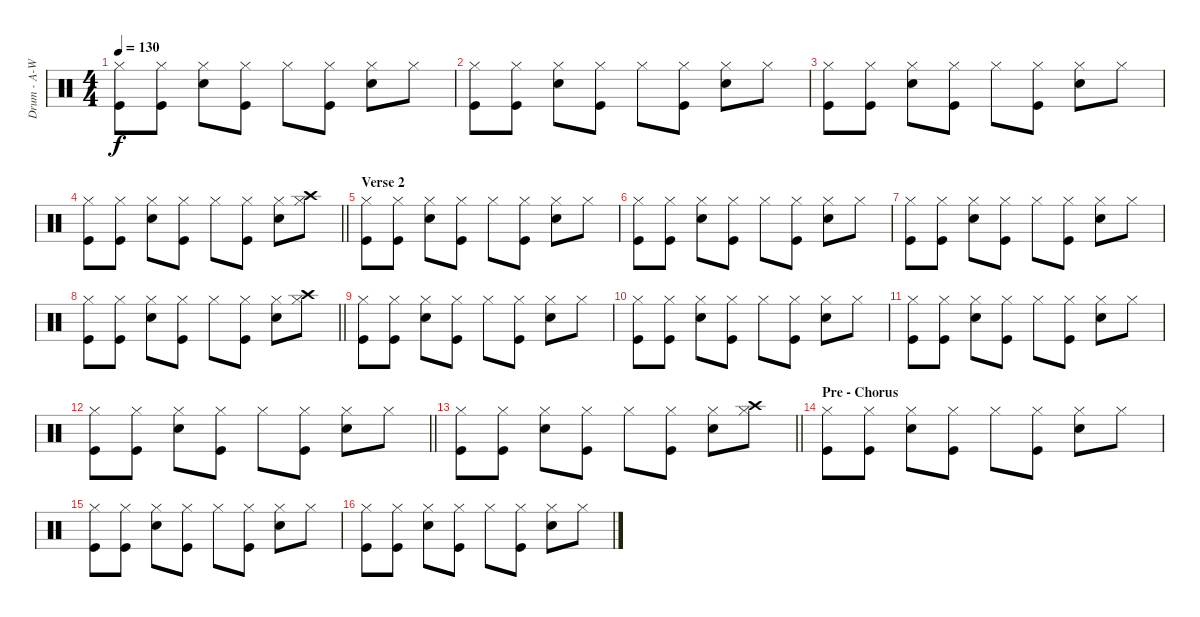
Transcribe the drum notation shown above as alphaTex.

\track ("Drum - A-Word" "Drum - A-W") {instrument percussion}
\staff {score}
\articulation defaults
\ts (4 4)
\tempo 130
\clef neutral
\ks c
("Hi-Hat (closed)" "Kick (hit)").8{dy f} ("Hi-Hat (closed)" "Kick (hit)").8 ("Hi-Hat (closed)" "Snare (hit) 2").8 ("Hi-Hat (closed)" "Kick (hit)").8 "Hi-Hat (closed)".8 ("Hi-Hat (closed)" "Kick (hit)").8 ("Hi-Hat (closed)" "Snare (hit) 2").8 "Hi-Hat (closed)".8 |
("Hi-Hat (closed)" "Kick (hit)").8 ("Hi-Hat (closed)" "Kick (hit)").8 ("Hi-Hat (closed)" "Snare (hit) 2").8 ("Hi-Hat (closed)" "Kick (hit)").8 "Hi-Hat (closed)".8 ("Hi-Hat (closed)" "Kick (hit)").8 ("Hi-Hat (closed)" "Snare (hit) 2").8 "Hi-Hat (closed)".8 |
("Hi-Hat (closed)" "Kick (hit)").8 ("Hi-Hat (closed)" "Kick (hit)").8 ("Hi-Hat (closed)" "Snare (hit) 2").8 ("Hi-Hat (closed)" "Kick (hit)").8 "Hi-Hat (closed)".8 ("Hi-Hat (closed)" "Kick (hit)").8 ("Hi-Hat (closed)" "Snare (hit) 2").8 "Hi-Hat (closed)".8 |
\barLineRight lightlight
("Hi-Hat (closed)" "Kick (hit)").8 ("Hi-Hat (closed)" "Kick (hit)").8 ("Hi-Hat (closed)" "Snare (hit) 2").8 ("Hi-Hat (closed)" "Kick (hit)").8 "Hi-Hat (closed)".8 ("Hi-Hat (closed)" "Kick (hit)").8 ("Hi-Hat (closed)" "Snare (hit) 2").8 ("Hi-Hat (closed)" "Crash high (hit)").8 |
\section ("" "Verse 2")
("Hi-Hat (closed)" "Kick (hit)").8 ("Hi-Hat (closed)" "Kick (hit)").8 ("Hi-Hat (closed)" "Snare (hit) 2").8 ("Hi-Hat (closed)" "Kick (hit)").8 "Hi-Hat (closed)".8 ("Hi-Hat (closed)" "Kick (hit)").8 ("Hi-Hat (closed)" "Snare (hit) 2").8 "Hi-Hat (closed)".8 |
("Hi-Hat (closed)" "Kick (hit)").8 ("Hi-Hat (closed)" "Kick (hit)").8 ("Hi-Hat (closed)" "Snare (hit) 2").8 ("Hi-Hat (closed)" "Kick (hit)").8 "Hi-Hat (closed)".8 ("Hi-Hat (closed)" "Kick (hit)").8 ("Hi-Hat (closed)" "Snare (hit) 2").8 "Hi-Hat (closed)".8 |
("Hi-Hat (closed)" "Kick (hit)").8 ("Hi-Hat (closed)" "Kick (hit)").8 ("Hi-Hat (closed)" "Snare (hit) 2").8 ("Hi-Hat (closed)" "Kick (hit)").8 "Hi-Hat (closed)".8 ("Hi-Hat (closed)" "Kick (hit)").8 ("Hi-Hat (closed)" "Snare (hit) 2").8 "Hi-Hat (closed)".8 |
\barLineRight lightlight
("Hi-Hat (closed)" "Kick (hit)").8 ("Hi-Hat (closed)" "Kick (hit)").8 ("Hi-Hat (closed)" "Snare (hit) 2").8 ("Hi-Hat (closed)" "Kick (hit)").8 "Hi-Hat (closed)".8 ("Hi-Hat (closed)" "Kick (hit)").8 ("Hi-Hat (closed)" "Snare (hit) 2").8 ("Hi-Hat (closed)" "Crash high (hit)").8 |
("Hi-Hat (closed)" "Kick (hit)").8 ("Hi-Hat (closed)" "Kick (hit)").8 ("Hi-Hat (closed)" "Snare (hit) 2").8 ("Hi-Hat (closed)" "Kick (hit)").8 "Hi-Hat (closed)".8 ("Hi-Hat (closed)" "Kick (hit)").8 ("Hi-Hat (closed)" "Snare (hit) 2").8 "Hi-Hat (closed)".8 |
("Hi-Hat (closed)" "Kick (hit)").8 ("Hi-Hat (closed)" "Kick (hit)").8 ("Hi-Hat (closed)" "Snare (hit) 2").8 ("Hi-Hat (closed)" "Kick (hit)").8 "Hi-Hat (closed)".8 ("Hi-Hat (closed)" "Kick (hit)").8 ("Hi-Hat (closed)" "Snare (hit) 2").8 "Hi-Hat (closed)".8 |
("Hi-Hat (closed)" "Kick (hit)").8 ("Hi-Hat (closed)" "Kick (hit)").8 ("Hi-Hat (closed)" "Snare (hit) 2").8 ("Hi-Hat (closed)" "Kick (hit)").8 "Hi-Hat (closed)".8 ("Hi-Hat (closed)" "Kick (hit)").8 ("Hi-Hat (closed)" "Snare (hit) 2").8 "Hi-Hat (closed)".8 |
\barLineRight lightlight
("Hi-Hat (closed)" "Kick (hit)").8 ("Hi-Hat (closed)" "Kick (hit)").8 ("Hi-Hat (closed)" "Snare (hit) 2").8 ("Hi-Hat (closed)" "Kick (hit)").8 "Hi-Hat (closed)".8 ("Hi-Hat (closed)" "Kick (hit)").8 ("Hi-Hat (closed)" "Snare (hit) 2").8 "Hi-Hat (closed)".8 |
\barLineRight lightlight
("Hi-Hat (closed)" "Kick (hit)").8 ("Hi-Hat (closed)" "Kick (hit)").8 ("Hi-Hat (closed)" "Snare (hit) 2").8 ("Hi-Hat (closed)" "Kick (hit)").8 "Hi-Hat (closed)".8 ("Hi-Hat (closed)" "Kick (hit)").8 ("Hi-Hat (closed)" "Snare (hit) 2").8 ("Hi-Hat (closed)" "Crash high (hit)").8 |
\section ("" "Pre - Chorus")
("Hi-Hat (closed)" "Kick (hit)").8 ("Hi-Hat (closed)" "Kick (hit)").8 ("Hi-Hat (closed)" "Snare (hit) 2").8 ("Hi-Hat (closed)" "Kick (hit)").8 "Hi-Hat (closed)".8 ("Hi-Hat (closed)" "Kick (hit)").8 ("Hi-Hat (closed)" "Snare (hit) 2").8 "Hi-Hat (closed)".8 |
("Hi-Hat (closed)" "Kick (hit)").8 ("Hi-Hat (closed)" "Kick (hit)").8 ("Hi-Hat (closed)" "Snare (hit) 2").8 ("Hi-Hat (closed)" "Kick (hit)").8 "Hi-Hat (closed)".8 ("Hi-Hat (closed)" "Kick (hit)").8 ("Hi-Hat (closed)" "Snare (hit) 2").8 "Hi-Hat (closed)".8 |
("Hi-Hat (closed)" "Kick (hit)").8 ("Hi-Hat (closed)" "Kick (hit)").8 ("Hi-Hat (closed)" "Snare (hit) 2").8 ("Hi-Hat (closed)" "Kick (hit)").8 "Hi-Hat (closed)".8 ("Hi-Hat (closed)" "Kick (hit)").8 ("Hi-Hat (closed)" "Snare (hit) 2").8 "Hi-Hat (closed)".8
